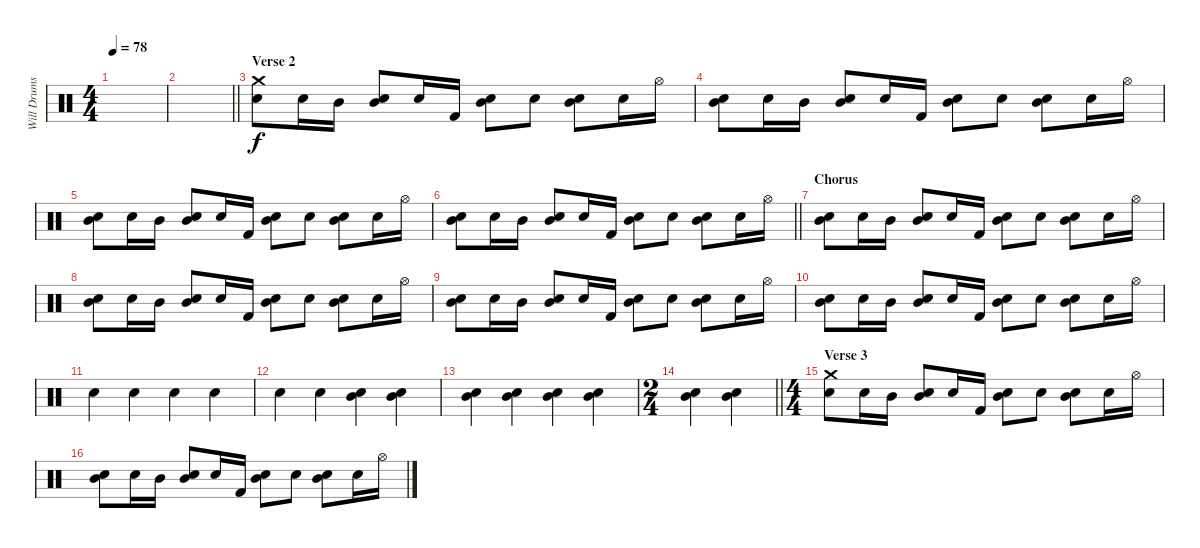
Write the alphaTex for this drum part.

\track ("Will Drums" "Will Drums") {instrument percussion}
\staff {score}
\articulation defaults
\ts (4 4)
\tempo 78
\clef neutral
\ks c
|
\barLineRight lightlight
|
\section ("" "Verse 2")
("Crash medium (hit)" "Snare (hit) 2").8 "Snare (hit) 2".16 "Mid Tom (hit)".16 ("Mid Tom (hit)" "Snare (hit) 2").8 "Snare (hit) 2".16 "Kick (hit) 2".16 ("Mid Tom (hit)" "Snare (hit) 2").8 "Snare (hit) 2".8 ("Mid Tom (hit)" "Snare (hit) 2").8 "Snare (hit) 2".16 "Hi-Hat (open)".16 |
("Mid Tom (hit)" "Snare (hit) 2").8 "Snare (hit) 2".16 "Mid Tom (hit)".16 ("Mid Tom (hit)" "Snare (hit) 2").8 "Snare (hit) 2".16 "Kick (hit) 2".16 ("Mid Tom (hit)" "Snare (hit) 2").8 "Snare (hit) 2".8 ("Mid Tom (hit)" "Snare (hit) 2").8 "Snare (hit) 2".16 "Hi-Hat (open)".16 |
("Mid Tom (hit)" "Snare (hit) 2").8 "Snare (hit) 2".16 "Mid Tom (hit)".16 ("Mid Tom (hit)" "Snare (hit) 2").8 "Snare (hit) 2".16 "Kick (hit) 2".16 ("Mid Tom (hit)" "Snare (hit) 2").8 "Snare (hit) 2".8 ("Mid Tom (hit)" "Snare (hit) 2").8 "Snare (hit) 2".16 "Hi-Hat (open)".16 |
\barLineRight lightlight
("Mid Tom (hit)" "Snare (hit) 2").8 "Snare (hit) 2".16 "Mid Tom (hit)".16 ("Mid Tom (hit)" "Snare (hit) 2").8 "Snare (hit) 2".16 "Kick (hit) 2".16 ("Mid Tom (hit)" "Snare (hit) 2").8 "Snare (hit) 2".8 ("Mid Tom (hit)" "Snare (hit) 2").8 "Snare (hit) 2".16 "Hi-Hat (open)".16 |
\section ("" "Chorus")
("Mid Tom (hit)" "Snare (hit) 2").8 "Snare (hit) 2".16 "Mid Tom (hit)".16 ("Mid Tom (hit)" "Snare (hit) 2").8 "Snare (hit) 2".16 "Kick (hit) 2".16 ("Mid Tom (hit)" "Snare (hit) 2").8 "Snare (hit) 2".8 ("Mid Tom (hit)" "Snare (hit) 2").8 "Snare (hit) 2".16 "Hi-Hat (open)".16 |
("Mid Tom (hit)" "Snare (hit) 2").8 "Snare (hit) 2".16 "Mid Tom (hit)".16 ("Mid Tom (hit)" "Snare (hit) 2").8 "Snare (hit) 2".16 "Kick (hit) 2".16 ("Mid Tom (hit)" "Snare (hit) 2").8 "Snare (hit) 2".8 ("Mid Tom (hit)" "Snare (hit) 2").8 "Snare (hit) 2".16 "Hi-Hat (open)".16 |
("Mid Tom (hit)" "Snare (hit) 2").8 "Snare (hit) 2".16 "Mid Tom (hit)".16 ("Mid Tom (hit)" "Snare (hit) 2").8 "Snare (hit) 2".16 "Kick (hit) 2".16 ("Mid Tom (hit)" "Snare (hit) 2").8 "Snare (hit) 2".8 ("Mid Tom (hit)" "Snare (hit) 2").8 "Snare (hit) 2".16 "Hi-Hat (open)".16 |
("Mid Tom (hit)" "Snare (hit) 2").8 "Snare (hit) 2".16 "Mid Tom (hit)".16 ("Mid Tom (hit)" "Snare (hit) 2").8 "Snare (hit) 2".16 "Kick (hit) 2".16 ("Mid Tom (hit)" "Snare (hit) 2").8 "Snare (hit) 2".8 ("Mid Tom (hit)" "Snare (hit) 2").8 "Snare (hit) 2".16 "Hi-Hat (open)".16 |
"Snare (hit) 2".4 "Snare (hit) 2".4 "Snare (hit) 2".4 "Snare (hit) 2".4 |
"Snare (hit) 2".4 "Snare (hit) 2".4 ("Mid Tom (hit)" "Snare (hit) 2").4 ("Mid Tom (hit)" "Snare (hit) 2").4 |
("Mid Tom (hit)" "Snare (hit) 2").4 ("Mid Tom (hit)" "Snare (hit) 2").4 ("Mid Tom (hit)" "Snare (hit) 2").4 ("Mid Tom (hit)" "Snare (hit) 2").4 |
\ts (2 4)
\barLineRight lightlight
("Mid Tom (hit)" "Snare (hit) 2").4 ("Mid Tom (hit)" "Snare (hit) 2").4 |
\ts (4 4)
\section ("" "Verse 3")
("Crash medium (hit)" "Snare (hit) 2").8 "Snare (hit) 2".16 "Mid Tom (hit)".16 ("Mid Tom (hit)" "Snare (hit) 2").8 "Snare (hit) 2".16 "Kick (hit) 2".16 ("Mid Tom (hit)" "Snare (hit) 2").8 "Snare (hit) 2".8 ("Mid Tom (hit)" "Snare (hit) 2").8 "Snare (hit) 2".16 "Hi-Hat (open)".16 |
("Mid Tom (hit)" "Snare (hit) 2").8 "Snare (hit) 2".16 "Mid Tom (hit)".16 ("Mid Tom (hit)" "Snare (hit) 2").8 "Snare (hit) 2".16 "Kick (hit) 2".16 ("Mid Tom (hit)" "Snare (hit) 2").8 "Snare (hit) 2".8 ("Mid Tom (hit)" "Snare (hit) 2").8 "Snare (hit) 2".16 "Hi-Hat (open)".16
